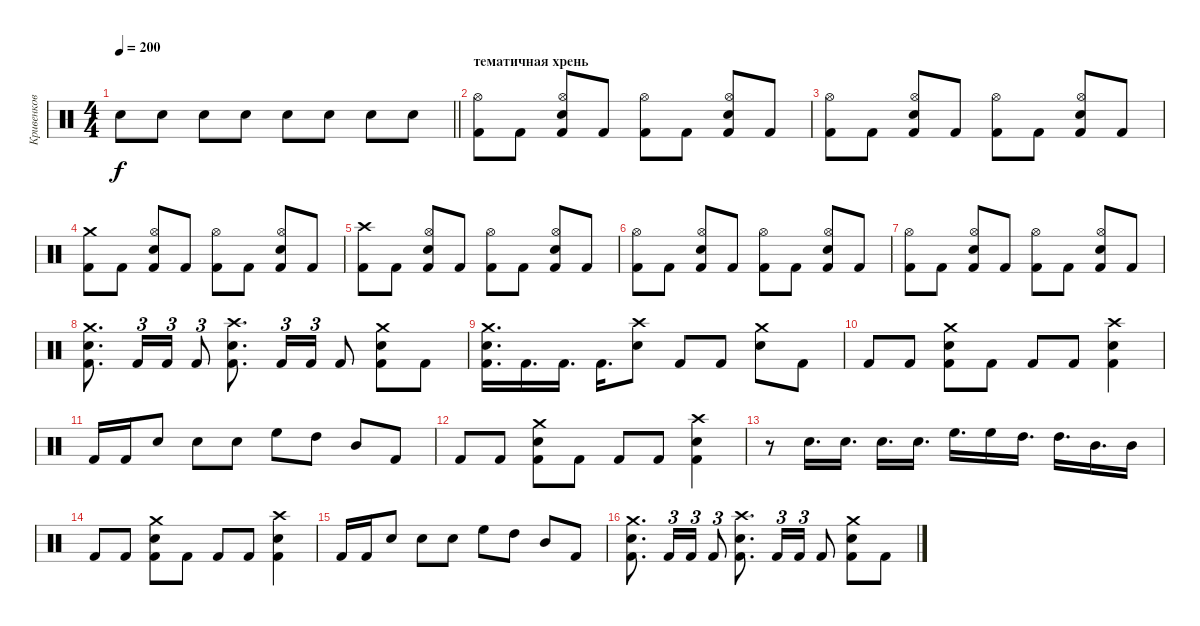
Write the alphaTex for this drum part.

\track ("Кривенков" "Кривенков") {instrument percussion}
\staff {score}
\articulation defaults
\ts (4 4)
\tempo 200
\clef neutral
\barLineRight lightlight
\ks c "Electric Snare (hit)".8{dy f} "Electric Snare (hit)".8 "Electric Snare (hit)".8 "Electric Snare (hit)".8 "Electric Snare (hit)".8 "Electric Snare (hit)".8 "Electric Snare (hit)".8 "Electric Snare (hit)".8
|
\section ("" "тематичная хрень")
("Hi-Hat (open)" "Kick (hit) 2").8 "Kick (hit) 2".8 ("Hi-Hat (open)" "Electric Snare (hit)" "Kick (hit) 2").8 "Kick (hit) 2".8 ("Hi-Hat (open)" "Kick (hit) 2").8 "Kick (hit) 2".8 ("Hi-Hat (open)" "Electric Snare (hit)" "Kick (hit) 2").8 "Kick (hit) 2".8 |
("Hi-Hat (open)" "Kick (hit) 2").8 "Kick (hit) 2".8 ("Hi-Hat (open)" "Electric Snare (hit)" "Kick (hit) 2").8 "Kick (hit) 2".8 ("Hi-Hat (open)" "Kick (hit) 2").8 "Kick (hit) 2".8 ("Hi-Hat (open)" "Electric Snare (hit)" "Kick (hit) 2").8 "Kick (hit) 2".8 |
("Crash medium (hit)" "Kick (hit) 2").8 "Kick (hit) 2".8 ("Hi-Hat (open)" "Electric Snare (hit)" "Kick (hit) 2").8 "Kick (hit) 2".8 ("Hi-Hat (open)" "Kick (hit) 2").8 "Kick (hit) 2".8 ("Hi-Hat (open)" "Electric Snare (hit)" "Kick (hit) 2").8 "Kick (hit) 2".8 |
("Crash high (hit)" "Kick (hit) 2").8 "Kick (hit) 2".8 ("Hi-Hat (open)" "Electric Snare (hit)" "Kick (hit) 2").8 "Kick (hit) 2".8 ("Hi-Hat (open)" "Kick (hit) 2").8 "Kick (hit) 2".8 ("Hi-Hat (open)" "Electric Snare (hit)" "Kick (hit) 2").8 "Kick (hit) 2".8 |
("Hi-Hat (open)" "Kick (hit) 2").8 "Kick (hit) 2".8 ("Hi-Hat (open)" "Electric Snare (hit)" "Kick (hit) 2").8 "Kick (hit) 2".8 ("Hi-Hat (open)" "Kick (hit) 2").8 "Kick (hit) 2".8 ("Hi-Hat (open)" "Electric Snare (hit)" "Kick (hit) 2").8 "Kick (hit) 2".8 |
("Hi-Hat (open)" "Kick (hit) 2").8 "Kick (hit) 2".8 ("Hi-Hat (open)" "Electric Snare (hit)" "Kick (hit) 2").8 "Kick (hit) 2".8 ("Hi-Hat (open)" "Kick (hit) 2").8 "Kick (hit) 2".8 ("Hi-Hat (open)" "Electric Snare (hit)" "Kick (hit) 2").8 "Kick (hit) 2".8 |
("Crash medium (hit)" "Electric Snare (hit)" "Kick (hit) 2").8{d} "Kick (hit) 2".16{tu (3 2)} "Kick (hit) 2".16{tu (3 2)} "Kick (hit) 2".8{tu (3 2)} ("Crash high (hit)" "Electric Snare (hit)" "Kick (hit) 2").8{d} "Kick (hit) 2".16{tu (3 2)} "Kick (hit) 2".16{tu (3 2)} "Kick (hit) 2".8 ("Crash medium (hit)" "Electric Snare (hit)" "Kick (hit) 2").8 "Kick (hit) 2".8 |
("Crash medium (hit)" "Electric Snare (hit)" "Kick (hit) 2").16{d} "Kick (hit) 2".16{d} "Kick (hit) 2".16{d} "Kick (hit) 2".16{d} ("Crash high (hit)" "Electric Snare (hit)").8 "Kick (hit) 2".8 "Kick (hit) 2".8 ("Crash medium (hit)" "Electric Snare (hit)").8 "Kick (hit) 2".8 |
"Kick (hit) 2".8 "Kick (hit) 2".8 ("Crash medium (hit)" "Electric Snare (hit)" "Kick (hit) 2").8 "Kick (hit) 2".8 "Kick (hit) 2".8 "Kick (hit) 2".8 ("Crash high (hit)" "Electric Snare (hit)" "Kick (hit) 2").4 |
"Kick (hit) 2".16 "Kick (hit) 2".16 "Electric Snare (hit)".8 "Electric Snare (hit)".8 "Electric Snare (hit)".8 "High Floor Tom (hit)".8 "High Tom (hit)".8 "Mid Tom (hit)".8 "Kick (hit) 2".8 |
"Kick (hit) 2".8 "Kick (hit) 2".8 ("Crash medium (hit)" "Electric Snare (hit)" "Kick (hit) 2").8 "Kick (hit) 2".8 "Kick (hit) 2".8 "Kick (hit) 2".8 ("Crash high (hit)" "Electric Snare (hit)" "Kick (hit) 2").4 |
r.8 "Electric Snare (hit)".16{d} "Electric Snare (hit)".16{d} "Electric Snare (hit)".16{d} "Electric Snare (hit)".16{d} "High Floor Tom (hit)".16{d} "High Floor Tom (hit)".16 "High Tom (hit)".16{d} "High Tom (hit)".16{d} "Mid Tom (hit)".16{d} "Mid Tom (hit)".16 |
"Kick (hit) 2".8 "Kick (hit) 2".8 ("Crash medium (hit)" "Electric Snare (hit)" "Kick (hit) 2").8 "Kick (hit) 2".8 "Kick (hit) 2".8 "Kick (hit) 2".8 ("Crash high (hit)" "Electric Snare (hit)" "Kick (hit) 2").4 |
"Kick (hit) 2".16 "Kick (hit) 2".16 "Electric Snare (hit)".8 "Electric Snare (hit)".8 "Electric Snare (hit)".8 "High Floor Tom (hit)".8 "High Tom (hit)".8 "Mid Tom (hit)".8 "Kick (hit) 2".8 |
("Crash medium (hit)" "Electric Snare (hit)" "Kick (hit) 2").8{d} "Kick (hit) 2".16{tu (3 2)} "Kick (hit) 2".16{tu (3 2)} "Kick (hit) 2".8{tu (3 2)} ("Crash high (hit)" "Electric Snare (hit)" "Kick (hit) 2").8{d} "Kick (hit) 2".16{tu (3 2)} "Kick (hit) 2".16{tu (3 2)} "Kick (hit) 2".8 ("Crash medium (hit)" "Electric Snare (hit)" "Kick (hit) 2").8 "Kick (hit) 2".8
